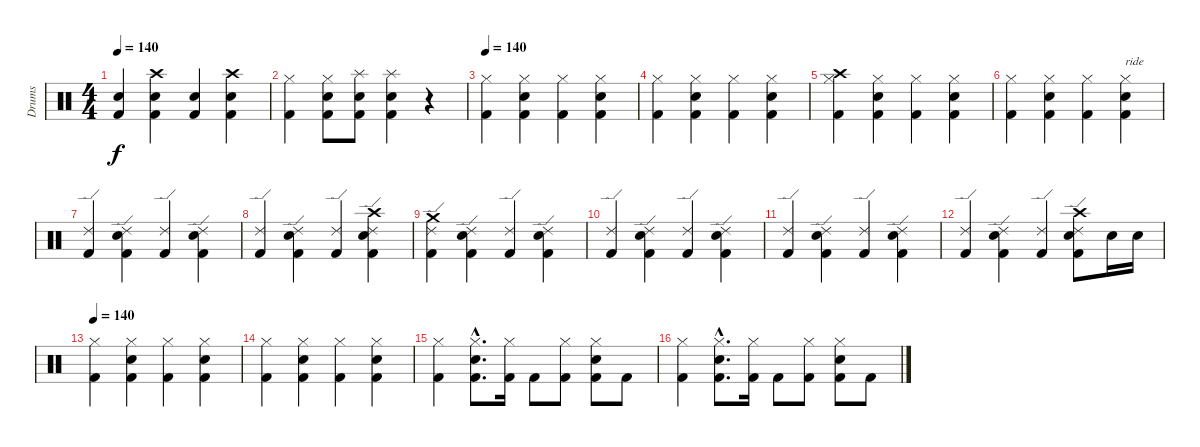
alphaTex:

\track ("Drums" "Drums") {instrument percussion}
\staff {score}
\articulation defaults
\ts (4 4)
\tempo 140
\clef neutral
\ks c
("Electric Snare (hit)" "Kick (hit) 2").4{dy f} ("Crash high (hit)" "Electric Snare (hit)" "Kick (hit) 2").4 ("Electric Snare (hit)" "Kick (hit) 2").4 ("Crash high (hit)" "Electric Snare (hit)" "Kick (hit) 2").4 |
("Hi-Hat (closed)" "Kick (hit) 2").4 ("Hi-Hat (closed)" "Electric Snare (hit)" "Kick (hit) 2").8 ("Splash (hit)" "Electric Snare (hit)" "Kick (hit) 2").8 ("Splash (hit)" "Electric Snare (hit)" "Kick (hit) 2").4 r.4 |
\tempo 140
("Hi-Hat (closed)" "Kick (hit) 2").4 ("Hi-Hat (closed)" "Electric Snare (hit)" "Kick (hit) 2").4 ("Hi-Hat (closed)" "Kick (hit) 2").4 ("Hi-Hat (closed)" "Electric Snare (hit)" "Kick (hit) 2").4 |
("Hi-Hat (closed)" "Kick (hit) 2").4 ("Hi-Hat (closed)" "Electric Snare (hit)" "Kick (hit) 2").4 ("Hi-Hat (closed)" "Kick (hit) 2").4 ("Hi-Hat (closed)" "Electric Snare (hit)" "Kick (hit) 2").4 |
("Hi-Hat (closed)" "Crash high (hit)" "Kick (hit) 2").4 ("Hi-Hat (closed)" "Electric Snare (hit)" "Kick (hit) 2").4 ("Hi-Hat (closed)" "Kick (hit) 2").4 ("Hi-Hat (closed)" "Electric Snare (hit)" "Kick (hit) 2").4 |
("Hi-Hat (closed)" "Kick (hit) 2").4 ("Hi-Hat (closed)" "Electric Snare (hit)" "Kick (hit) 2").4 ("Hi-Hat (closed)" "Kick (hit) 2").4 ("Hi-Hat (closed)" "Electric Snare (hit)" "Kick (hit) 2").4{txt "ride"} |
("Ride (edge) 2" "Kick (hit) 2").4 ("Ride (edge) 2" "Electric Snare (hit)" "Kick (hit) 2").4 ("Ride (edge) 2" "Kick (hit) 2").4 ("Ride (edge) 2" "Electric Snare (hit)" "Kick (hit) 2").4 |
("Ride (edge) 2" "Kick (hit) 2").4 ("Ride (edge) 2" "Electric Snare (hit)" "Kick (hit) 2").4 ("Ride (edge) 2" "Kick (hit) 2").4 ("Ride (edge) 2" "Crash high (hit)" "Electric Snare (hit)" "Kick (hit) 2").4 |
("Ride (edge) 2" "Crash medium (hit)" "Kick (hit) 2").4 ("Ride (edge) 2" "Electric Snare (hit)" "Kick (hit) 2").4 ("Ride (edge) 2" "Kick (hit) 2").4 ("Ride (edge) 2" "Electric Snare (hit)" "Kick (hit) 2").4 |
("Ride (edge) 2" "Kick (hit) 2").4 ("Ride (edge) 2" "Electric Snare (hit)" "Kick (hit) 2").4 ("Ride (edge) 2" "Kick (hit) 2").4 ("Ride (edge) 2" "Electric Snare (hit)" "Kick (hit) 2").4 |
("Ride (edge) 2" "Kick (hit) 2").4 ("Ride (edge) 2" "Electric Snare (hit)" "Kick (hit) 2").4 ("Ride (edge) 2" "Kick (hit) 2").4 ("Ride (edge) 2" "Electric Snare (hit)" "Kick (hit) 2").4 |
("Ride (edge) 2" "Kick (hit) 2").4 ("Ride (edge) 2" "Electric Snare (hit)" "Kick (hit) 2").4 ("Ride (edge) 2" "Kick (hit) 2").4 ("Ride (edge) 2" "Crash high (hit)" "Electric Snare (hit)" "Kick (hit) 2").8 "Electric Snare (hit)".16 "Electric Snare (hit)".16 |
\tempo 140
("Hi-Hat (closed)" "Kick (hit) 2").4 ("Hi-Hat (closed)" "Electric Snare (hit)" "Kick (hit) 2").4 ("Hi-Hat (closed)" "Kick (hit) 2").4 ("Hi-Hat (closed)" "Electric Snare (hit)" "Kick (hit) 2").4 |
("Hi-Hat (closed)" "Kick (hit) 2").4 ("Hi-Hat (closed)" "Electric Snare (hit)" "Kick (hit) 2").4 ("Hi-Hat (closed)" "Kick (hit) 2").4 ("Hi-Hat (closed)" "Electric Snare (hit)" "Kick (hit) 2").4 |
("Hi-Hat (closed)" "Kick (hit) 2").4 ("Hi-Hat (closed)"{hac} "Electric Snare (hit)"{hac} "Kick (hit) 2"{hac}).8{d} ("Hi-Hat (closed)" "Kick (hit) 2").16 "Kick (hit) 2".8 ("Hi-Hat (closed)" "Kick (hit) 2").8 ("Hi-Hat (closed)" "Electric Snare (hit)" "Kick (hit) 2").8 "Kick (hit) 2".8 |
("Hi-Hat (closed)" "Kick (hit) 2").4 ("Hi-Hat (closed)"{hac} "Electric Snare (hit)"{hac} "Kick (hit) 2"{hac}).8{d} ("Hi-Hat (closed)" "Kick (hit) 2").16 "Kick (hit) 2".8 ("Hi-Hat (closed)" "Kick (hit) 2").8 ("Hi-Hat (closed)" "Electric Snare (hit)" "Kick (hit) 2").8 "Kick (hit) 2".8
